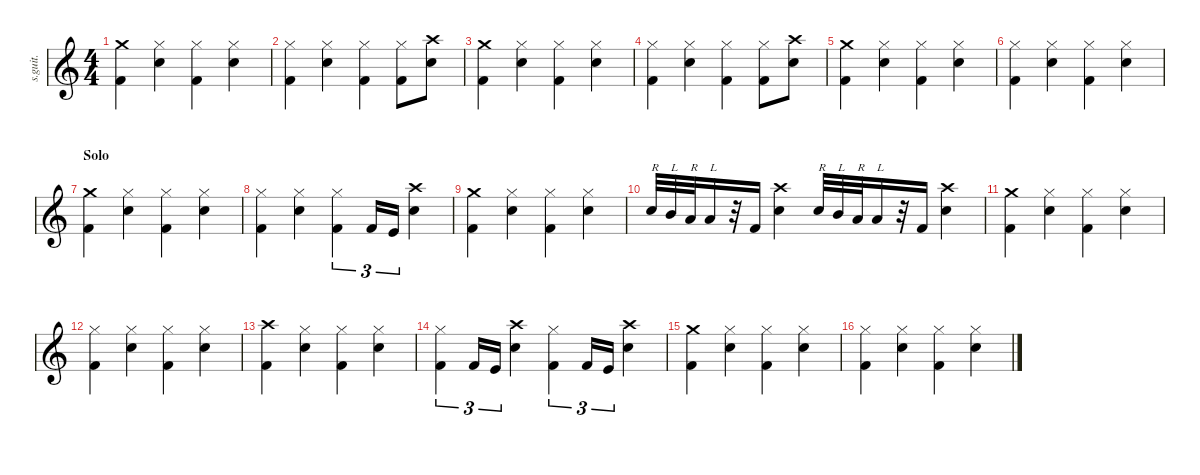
\defaultSystemsLayout 4
\hideDynamics
\bracketExtendMode nobrackets
\track ("Lars Ulrich (Drums)" "s.guit.") {instrument percussion}
\staff {score}
\articulation defaults
\ts (4 4)
\tempo (118 hide)
\clef g2
\ks c
("Crash medium (hit)" "Kick (hit) 2").4{lyrics (0 "") lyrics (1 "") lyrics (2 "") lyrics (3 "") lyrics (4 "") dy f} ("Hi-Hat (closed)" "Snare (hit) 2").4{lyrics (0 "") lyrics (1 "") lyrics (2 "") lyrics (3 "") lyrics (4 "")} ("Hi-Hat (closed)" "Kick (hit) 2").4{lyrics (0 "") lyrics (1 "") lyrics (2 "") lyrics (3 "") lyrics (4 "")} ("Hi-Hat (closed)" "Snare (hit) 2").4{lyrics (0 "") lyrics (1 "") lyrics (2 "") lyrics (3 "") lyrics (4 "")} |
("Hi-Hat (closed)" "Kick (hit) 2").4{lyrics (0 "") lyrics (1 "") lyrics (2 "") lyrics (3 "") lyrics (4 "")} ("Hi-Hat (closed)" "Snare (hit) 2").4{lyrics (0 "") lyrics (1 "") lyrics (2 "") lyrics (3 "") lyrics (4 "")} ("Hi-Hat (closed)" "Kick (hit) 2").4{lyrics (0 "") lyrics (1 "") lyrics (2 "") lyrics (3 "") lyrics (4 "")} ("Hi-Hat (closed)" "Kick (hit) 2").8{lyrics (0 "") lyrics (1 "") lyrics (2 "") lyrics (3 "") lyrics (4 "")} ("Crash high (hit)" "Snare (hit) 2").8{lyrics (0 "") lyrics (1 "") lyrics (2 "") lyrics (3 "") lyrics (4 "")} |
("Crash medium (hit)" "Kick (hit) 2").4{lyrics (0 "") lyrics (1 "") lyrics (2 "") lyrics (3 "") lyrics (4 "")} ("Hi-Hat (closed)" "Snare (hit) 2").4{lyrics (0 "") lyrics (1 "") lyrics (2 "") lyrics (3 "") lyrics (4 "")} ("Hi-Hat (closed)" "Kick (hit) 2").4{lyrics (0 "") lyrics (1 "") lyrics (2 "") lyrics (3 "") lyrics (4 "")} ("Hi-Hat (closed)" "Snare (hit) 2").4{lyrics (0 "") lyrics (1 "") lyrics (2 "") lyrics (3 "") lyrics (4 "")} |
("Hi-Hat (closed)" "Kick (hit) 2").4{lyrics (0 "") lyrics (1 "") lyrics (2 "") lyrics (3 "") lyrics (4 "")} ("Hi-Hat (closed)" "Snare (hit) 2").4{lyrics (0 "") lyrics (1 "") lyrics (2 "") lyrics (3 "") lyrics (4 "")} ("Hi-Hat (closed)" "Kick (hit) 2").4{lyrics (0 "") lyrics (1 "") lyrics (2 "") lyrics (3 "") lyrics (4 "")} ("Hi-Hat (closed)" "Kick (hit) 2").8{lyrics (0 "") lyrics (1 "") lyrics (2 "") lyrics (3 "") lyrics (4 "")} ("Crash high (hit)" "Snare (hit) 2").8{lyrics (0 "") lyrics (1 "") lyrics (2 "") lyrics (3 "") lyrics (4 "")} |
("Crash medium (hit)" "Kick (hit) 2").4{lyrics (0 "") lyrics (1 "") lyrics (2 "") lyrics (3 "") lyrics (4 "")} ("Hi-Hat (closed)" "Snare (hit) 2").4{lyrics (0 "") lyrics (1 "") lyrics (2 "") lyrics (3 "") lyrics (4 "")} ("Hi-Hat (closed)" "Kick (hit) 2").4{lyrics (0 "") lyrics (1 "") lyrics (2 "") lyrics (3 "") lyrics (4 "")} ("Hi-Hat (closed)" "Snare (hit) 2").4{lyrics (0 "") lyrics (1 "") lyrics (2 "") lyrics (3 "") lyrics (4 "")} |
("Hi-Hat (closed)" "Kick (hit) 2").4{lyrics (0 "") lyrics (1 "") lyrics (2 "") lyrics (3 "") lyrics (4 "")} ("Hi-Hat (closed)" "Snare (hit) 2").4{lyrics (0 "") lyrics (1 "") lyrics (2 "") lyrics (3 "") lyrics (4 "")} ("Hi-Hat (closed)" "Kick (hit) 2").4{lyrics (0 "") lyrics (1 "") lyrics (2 "") lyrics (3 "") lyrics (4 "")} ("Hi-Hat (closed)" "Snare (hit) 2").4{lyrics (0 "") lyrics (1 "") lyrics (2 "") lyrics (3 "") lyrics (4 "")} |
\section ("" "Solo")
("Crash medium (hit)" "Kick (hit) 2").4{lyrics (0 "") lyrics (1 "") lyrics (2 "") lyrics (3 "") lyrics (4 "")} ("Hi-Hat (closed)" "Snare (hit) 2").4{lyrics (0 "") lyrics (1 "") lyrics (2 "") lyrics (3 "") lyrics (4 "")} ("Hi-Hat (closed)" "Kick (hit) 2").4{lyrics (0 "") lyrics (1 "") lyrics (2 "") lyrics (3 "") lyrics (4 "")} ("Hi-Hat (closed)" "Snare (hit) 2").4{lyrics (0 "") lyrics (1 "") lyrics (2 "") lyrics (3 "") lyrics (4 "")} |
("Hi-Hat (closed)" "Kick (hit) 2").4{lyrics (0 "") lyrics (1 "") lyrics (2 "") lyrics (3 "") lyrics (4 "")} ("Hi-Hat (closed)" "Snare (hit) 2").4{lyrics (0 "") lyrics (1 "") lyrics (2 "") lyrics (3 "") lyrics (4 "")} ("Hi-Hat (closed)" "Kick (hit) 2").4{tu (3 2) lyrics (0 "") lyrics (1 "") lyrics (2 "") lyrics (3 "") lyrics (4 "")} "Kick (hit) 2".16{tu (3 2) lyrics (0 "") lyrics (1 "") lyrics (2 "") lyrics (3 "") lyrics (4 "")} "Kick (hit)".16{tu (3 2) lyrics (0 "") lyrics (1 "") lyrics (2 "") lyrics (3 "") lyrics (4 "")} ("Crash high (hit)" "Snare (hit) 2").4{lyrics (0 "") lyrics (1 "") lyrics (2 "") lyrics (3 "") lyrics (4 "")} |
("Crash medium (hit)" "Kick (hit) 2").4{lyrics (0 "") lyrics (1 "") lyrics (2 "") lyrics (3 "") lyrics (4 "")} ("Hi-Hat (closed)" "Snare (hit) 2").4{lyrics (0 "") lyrics (1 "") lyrics (2 "") lyrics (3 "") lyrics (4 "")} ("Hi-Hat (closed)" "Kick (hit) 2").4{lyrics (0 "") lyrics (1 "") lyrics (2 "") lyrics (3 "") lyrics (4 "")} ("Hi-Hat (closed)" "Snare (hit) 2").4{lyrics (0 "") lyrics (1 "") lyrics (2 "") lyrics (3 "") lyrics (4 "")} |
"Snare (hit) 2".32{txt "R" lyrics (0 "") lyrics (1 "") lyrics (2 "") lyrics (3 "") lyrics (4 "")} "Mid Tom (hit)".32{txt "L" lyrics (0 "") lyrics (1 "") lyrics (2 "") lyrics (3 "") lyrics (4 "")} "Low Tom (hit)".32{txt "R" lyrics (0 "") lyrics (1 "") lyrics (2 "") lyrics (3 "") lyrics (4 "")} "Low Floor Tom (hit)".16{txt "L" lyrics (0 "") lyrics (1 "") lyrics (2 "") lyrics (3 "") lyrics (4 "")} r.32 "Kick (hit) 2".16{lyrics (0 "") lyrics (1 "") lyrics (2 "") lyrics (3 "") lyrics (4 "")} ("Crash high (hit)" "Snare (hit) 2").4{lyrics (0 "") lyrics (1 "") lyrics (2 "") lyrics (3 "") lyrics (4 "")} "Snare (hit) 2".32{txt "R" lyrics (0 "") lyrics (1 "") lyrics (2 "") lyrics (3 "") lyrics (4 "")} "Mid Tom (hit)".32{txt "L" lyrics (0 "") lyrics (1 "") lyrics (2 "") lyrics (3 "") lyrics (4 "")} "Low Tom (hit)".32{txt "R" lyrics (0 "") lyrics (1 "") lyrics (2 "") lyrics (3 "") lyrics (4 "")} "Low Floor Tom (hit)".16{txt "L" lyrics (0 "") lyrics (1 "") lyrics (2 "") lyrics (3 "") lyrics (4 "")} r.32 "Kick (hit) 2".16{lyrics (0 "") lyrics (1 "") lyrics (2 "") lyrics (3 "") lyrics (4 "")} ("Crash high (hit)" "Snare (hit) 2").4{lyrics (0 "") lyrics (1 "") lyrics (2 "") lyrics (3 "") lyrics (4 "")} |
("Crash medium (hit)" "Kick (hit) 2").4{lyrics (0 "") lyrics (1 "") lyrics (2 "") lyrics (3 "") lyrics (4 "")} ("Hi-Hat (closed)" "Snare (hit) 2").4{lyrics (0 "") lyrics (1 "") lyrics (2 "") lyrics (3 "") lyrics (4 "")} ("Hi-Hat (closed)" "Kick (hit) 2").4{lyrics (0 "") lyrics (1 "") lyrics (2 "") lyrics (3 "") lyrics (4 "")} ("Hi-Hat (closed)" "Snare (hit) 2").4{lyrics (0 "") lyrics (1 "") lyrics (2 "") lyrics (3 "") lyrics (4 "")} |
("Hi-Hat (closed)" "Kick (hit) 2").4{lyrics (0 "") lyrics (1 "") lyrics (2 "") lyrics (3 "") lyrics (4 "")} ("Hi-Hat (closed)" "Snare (hit) 2").4{lyrics (0 "") lyrics (1 "") lyrics (2 "") lyrics (3 "") lyrics (4 "")} ("Hi-Hat (closed)" "Kick (hit) 2").4{lyrics (0 "") lyrics (1 "") lyrics (2 "") lyrics (3 "") lyrics (4 "")} ("Hi-Hat (closed)" "Snare (hit) 2").4{lyrics (0 "") lyrics (1 "") lyrics (2 "") lyrics (3 "") lyrics (4 "")} |
("Crash high (hit)" "Kick (hit) 2").4{lyrics (0 "") lyrics (1 "") lyrics (2 "") lyrics (3 "") lyrics (4 "")} ("Hi-Hat (closed)" "Snare (hit) 2").4{lyrics (0 "") lyrics (1 "") lyrics (2 "") lyrics (3 "") lyrics (4 "")} ("Hi-Hat (closed)" "Kick (hit) 2").4{lyrics (0 "") lyrics (1 "") lyrics (2 "") lyrics (3 "") lyrics (4 "")} ("Hi-Hat (closed)" "Snare (hit) 2").4{lyrics (0 "") lyrics (1 "") lyrics (2 "") lyrics (3 "") lyrics (4 "")} |
("Hi-Hat (closed)" "Kick (hit) 2").4{tu (3 2) lyrics (0 "") lyrics (1 "") lyrics (2 "") lyrics (3 "") lyrics (4 "")} "Kick (hit) 2".16{tu (3 2) lyrics (0 "") lyrics (1 "") lyrics (2 "") lyrics (3 "") lyrics (4 "")} "Kick (hit)".16{tu (3 2) lyrics (0 "") lyrics (1 "") lyrics (2 "") lyrics (3 "") lyrics (4 "")} ("Crash high (hit)" "Snare (hit) 2").4{lyrics (0 "") lyrics (1 "") lyrics (2 "") lyrics (3 "") lyrics (4 "")} ("Hi-Hat (closed)" "Kick (hit) 2").4{tu (3 2) lyrics (0 "") lyrics (1 "") lyrics (2 "") lyrics (3 "") lyrics (4 "")} "Kick (hit) 2".16{tu (3 2) lyrics (0 "") lyrics (1 "") lyrics (2 "") lyrics (3 "") lyrics (4 "")} "Kick (hit)".16{tu (3 2) lyrics (0 "") lyrics (1 "") lyrics (2 "") lyrics (3 "") lyrics (4 "")} ("Crash high (hit)" "Snare (hit) 2").4{lyrics (0 "") lyrics (1 "") lyrics (2 "") lyrics (3 "") lyrics (4 "")} |
("Crash medium (hit)" "Kick (hit) 2").4{lyrics (0 "") lyrics (1 "") lyrics (2 "") lyrics (3 "") lyrics (4 "")} ("Hi-Hat (closed)" "Snare (hit) 2").4{lyrics (0 "") lyrics (1 "") lyrics (2 "") lyrics (3 "") lyrics (4 "")} ("Hi-Hat (closed)" "Kick (hit) 2").4{lyrics (0 "") lyrics (1 "") lyrics (2 "") lyrics (3 "") lyrics (4 "")} ("Hi-Hat (closed)" "Snare (hit) 2").4{lyrics (0 "") lyrics (1 "") lyrics (2 "") lyrics (3 "") lyrics (4 "")} |
("Hi-Hat (closed)" "Kick (hit) 2").4{lyrics (0 "") lyrics (1 "") lyrics (2 "") lyrics (3 "") lyrics (4 "")} ("Hi-Hat (closed)" "Snare (hit) 2").4{lyrics (0 "") lyrics (1 "") lyrics (2 "") lyrics (3 "") lyrics (4 "")} ("Hi-Hat (closed)" "Kick (hit) 2").4{lyrics (0 "") lyrics (1 "") lyrics (2 "") lyrics (3 "") lyrics (4 "")} ("Hi-Hat (closed)" "Snare (hit) 2").4{lyrics (0 "") lyrics (1 "") lyrics (2 "") lyrics (3 "") lyrics (4 "")}
